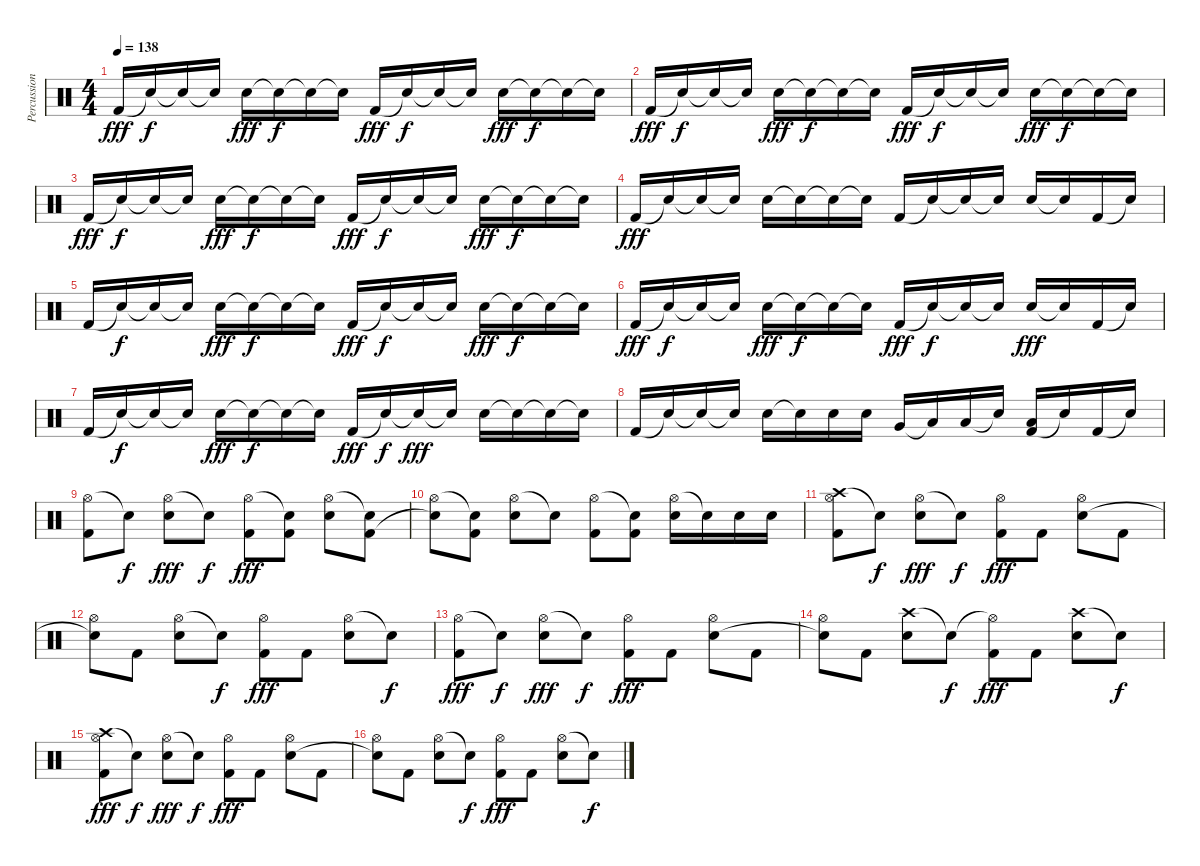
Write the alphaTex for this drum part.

\track ("Percussion" "Percussion") {instrument percussion}
\staff {score}
\articulation defaults
\ts (4 4)
\tempo 138
\clef neutral
\ks c "Kick (hit) 2".16{dy fff} "Snare (hit)"{t}.16{dy f} "Snare (hit)"{t}.16 "Snare (hit)"{t}.16 "Electric Snare (hit)".16{dy fff} "Snare (hit)"{t}.16{dy f} "Snare (hit)"{t}.16 "Snare (hit)"{t}.16 "Kick (hit) 2".16{dy fff} "Snare (hit)"{t}.16{dy f} "Snare (hit)"{t}.16 "Snare (hit)"{t}.16 "Electric Snare (hit)".16{dy fff} "Snare (hit)"{t}.16{dy f} "Snare (hit)"{t}.16 "Snare (hit)"{t}.16
|
"Kick (hit) 2".16{dy fff} "Snare (hit)"{t}.16{dy f} "Snare (hit)"{t}.16 "Snare (hit)"{t}.16 "Electric Snare (hit)".16{dy fff} "Snare (hit)"{t}.16{dy f} "Snare (hit)"{t}.16 "Snare (hit)"{t}.16 "Kick (hit) 2".16{dy fff} "Snare (hit)"{t}.16{dy f} "Snare (hit)"{t}.16 "Snare (hit)"{t}.16 "Electric Snare (hit)".16{dy fff} "Snare (hit)"{t}.16{dy f} "Snare (hit)"{t}.16 "Snare (hit)"{t}.16 |
"Kick (hit) 2".16{dy fff} "Snare (hit)"{t}.16{dy f} "Snare (hit)"{t}.16 "Snare (hit)"{t}.16 "Electric Snare (hit)".16{dy fff} "Snare (hit)"{t}.16{dy f} "Snare (hit)"{t}.16 "Snare (hit)"{t}.16 "Kick (hit) 2".16{dy fff} "Snare (hit)"{t}.16{dy f} "Snare (hit)"{t}.16 "Snare (hit)"{t}.16 "Electric Snare (hit)".16{dy fff} "Snare (hit)"{t}.16{dy f} "Snare (hit)"{t}.16 "Snare (hit)"{t}.16 |
"Kick (hit) 2".16{dy fff} "Snare (hit)"{t}.16 "Snare (hit)"{t}.16 "Snare (hit)"{t}.16 "Electric Snare (hit)".16 "Snare (hit)"{t}.16 "Snare (hit)"{t}.16 "Snare (hit)"{t}.16 "Kick (hit) 2".16 "Snare (hit)"{t}.16 "Snare (hit)"{t}.16 "Snare (hit)"{t}.16 "Electric Snare (hit)".16 "Snare (hit)"{t}.16 "Kick (hit) 2".16 "Snare (hit)"{t}.16 |
"Kick (hit) 2".16 "Snare (hit)"{t}.16{dy f} "Snare (hit)"{t}.16 "Snare (hit)"{t}.16 "Electric Snare (hit)".16{dy fff} "Snare (hit)"{t}.16{dy f} "Snare (hit)"{t}.16 "Snare (hit)"{t}.16 "Kick (hit) 2".16{dy fff} "Snare (hit)"{t}.16{dy f} "Snare (hit)"{t}.16 "Snare (hit)"{t}.16 "Electric Snare (hit)".16{dy fff} "Snare (hit)"{t}.16{dy f} "Snare (hit)"{t}.16 "Snare (hit)"{t}.16 |
"Kick (hit) 2".16{dy fff} "Snare (hit)"{t}.16{dy f} "Snare (hit)"{t}.16 "Snare (hit)"{t}.16 "Electric Snare (hit)".16{dy fff} "Snare (hit)"{t}.16{dy f} "Snare (hit)"{t}.16 "Snare (hit)"{t}.16 "Kick (hit) 2".16{dy fff} "Snare (hit)"{t}.16{dy f} "Snare (hit)"{t}.16 "Snare (hit)"{t}.16 "Electric Snare (hit)".16{dy fff} "Snare (hit)"{t}.16 "Kick (hit) 2".16 "Snare (hit)"{t}.16 |
"Kick (hit) 2".16 "Snare (hit)"{t}.16{dy f} "Snare (hit)"{t}.16 "Snare (hit)"{t}.16 "Electric Snare (hit)".16{dy fff} "Snare (hit)"{t}.16{dy f} "Snare (hit)"{t}.16 "Snare (hit)"{t}.16 "Kick (hit) 2".16{dy fff} "Snare (hit)"{t}.16{dy f} "Snare (hit)"{t}.16{dy fff} "Snare (hit)"{t}.16 "Electric Snare (hit)".16 "Snare (hit)"{t}.16 "Snare (hit)"{t}.16 "Snare (hit)"{t}.16 |
"Kick (hit) 2".16 "Snare (hit)"{t}.16 "Snare (hit)"{t}.16 "Snare (hit)"{t}.16 "Electric Snare (hit)".16 "Snare (hit)"{t}.16 "Electric Snare (hit)".16 "Electric Snare (hit)".16 "Very Low Tom (hit)".16 "Low Floor Tom (hit)"{t}.16 "Low Floor Tom (hit)".16 "Snare (hit)"{t}.16 ("Kick (hit) 2" "Low Floor Tom (hit)").16 "Snare (hit)"{t}.16 "Kick (hit) 2".16 "Snare (hit)"{t}.16 |
("Hi-Hat (open)" "Kick (hit) 2").8 "Snare (hit)"{t}.8{dy f} ("Hi-Hat (open)" "Electric Snare (hit)").8{dy fff} "Snare (hit)"{t}.8{dy f} ("Hi-Hat (open)" "Kick (hit) 2").8{dy fff} ("Snare (hit)"{t} "Kick (hit) 2").8 ("Hi-Hat (open)" "Electric Snare (hit)").8 ("Snare (hit)"{t} "Kick (hit) 2").8 |
("Hi-Hat (open)" "Snare (hit)"{t}).8 ("Snare (hit)"{t} "Kick (hit) 2").8 ("Hi-Hat (open)" "Electric Snare (hit)").8 "Snare (hit)"{t}.8 ("Hi-Hat (open)" "Kick (hit) 2").8 ("Snare (hit)"{t} "Kick (hit) 2").8 ("Hi-Hat (open)" "Electric Snare (hit)").16 "Snare (hit)"{t}.16 "Electric Snare (hit)".16 "Electric Snare (hit)".16 |
("Crash high (hit)" "Hi-Hat (open)" "Kick (hit) 2").8 "Snare (hit)"{t}.8{dy f} ("Hi-Hat (open)" "Electric Snare (hit)").8{dy fff} "Snare (hit)"{t}.8{dy f} ("Hi-Hat (open)" "Kick (hit) 2").8{dy fff} "Kick (hit) 2".8 ("Hi-Hat (open)" "Electric Snare (hit)").8 "Kick (hit) 2".8 |
("Hi-Hat (open)" "Snare (hit)"{t}).8 "Kick (hit) 2".8 ("Hi-Hat (open)" "Electric Snare (hit)").8 "Snare (hit)"{t}.8{dy f} ("Hi-Hat (open)" "Kick (hit) 2").8{dy fff} "Kick (hit) 2".8 ("Hi-Hat (open)" "Electric Snare (hit)").8 "Snare (hit)"{t}.8{dy f} |
("Hi-Hat (open)" "Kick (hit) 2").8{dy fff} "Snare (hit)"{t}.8{dy f} ("Hi-Hat (open)" "Electric Snare (hit)").8{dy fff} "Snare (hit)"{t}.8{dy f} ("Hi-Hat (open)" "Kick (hit) 2").8{dy fff} "Kick (hit) 2".8 ("Hi-Hat (open)" "Electric Snare (hit)").8 "Kick (hit) 2".8 |
("Hi-Hat (open)" "Snare (hit)"{t}).8 "Kick (hit) 2".8 ("Crash high (hit)" "Electric Snare (hit)").8 "Snare (hit)"{t}.8{dy f} ("Hi-Hat (open)"{t} "Kick (hit) 2").8{dy fff} "Kick (hit) 2".8 ("Crash high (hit)" "Electric Snare (hit)").8 "Snare (hit)"{t}.8{dy f} |
("Crash high (hit)" "Hi-Hat (open)" "Kick (hit) 2").8{dy fff} "Snare (hit)"{t}.8{dy f} ("Hi-Hat (open)" "Electric Snare (hit)").8{dy fff} "Snare (hit)"{t}.8{dy f} ("Hi-Hat (open)" "Kick (hit) 2").8{dy fff} "Kick (hit) 2".8 ("Hi-Hat (open)" "Electric Snare (hit)").8 "Kick (hit) 2".8 |
("Hi-Hat (open)" "Snare (hit)"{t}).8 "Kick (hit) 2".8 ("Hi-Hat (open)" "Electric Snare (hit)").8 "Snare (hit)"{t}.8{dy f} ("Hi-Hat (open)" "Kick (hit) 2").8{dy fff} "Kick (hit) 2".8 ("Hi-Hat (open)" "Electric Snare (hit)").8 "Snare (hit)"{t}.8{dy f}
